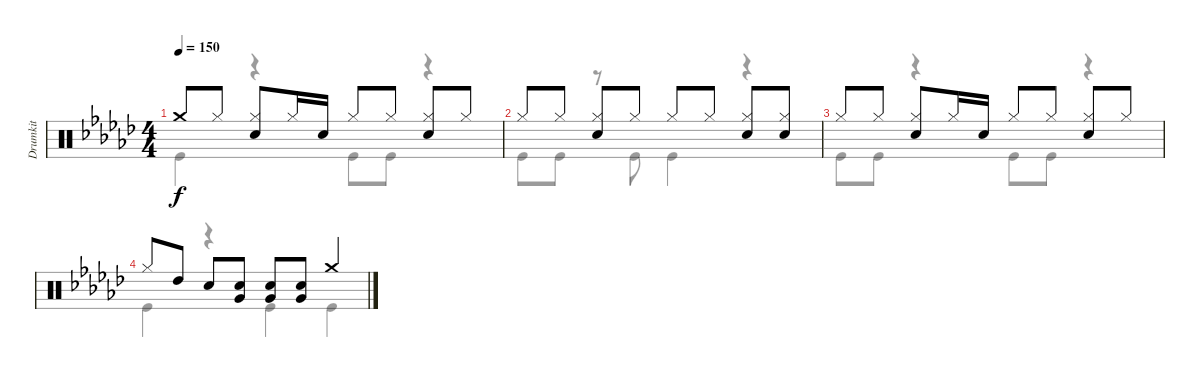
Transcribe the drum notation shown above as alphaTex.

\track ("Drumkit" "Drumkit") {instrument percussion}
\staff {score}
\articulation defaults
\voice
\ts (4 4)
\tempo 150
\clef neutral
\ks ebminor "Crash medium (hit)".8{dy f} "Hi-Hat (closed)".8
("Hi-Hat (closed)" "Snare (hit) 2").8 "Hi-Hat (closed)".16 "Snare (hit) 2".16 "Hi-Hat (closed)".8 "Hi-Hat (closed)".8 ("Hi-Hat (closed)" "Snare (hit) 2").8 "Hi-Hat (closed)".8 |
"Hi-Hat (closed)".8 "Hi-Hat (closed)".8 ("Hi-Hat (closed)" "Snare (hit) 2").8 "Hi-Hat (closed)".8 "Hi-Hat (closed)".8 "Hi-Hat (closed)".8 ("Hi-Hat (closed)" "Snare (hit) 2").8 ("Hi-Hat (closed)" "Snare (hit) 2").8 |
"Hi-Hat (closed)".8 "Hi-Hat (closed)".8 ("Hi-Hat (closed)" "Snare (hit) 2").8 "Hi-Hat (closed)".16 "Snare (hit) 2".16 "Hi-Hat (closed)".8 "Hi-Hat (closed)".8 ("Hi-Hat (closed)" "Snare (hit) 2").8 "Hi-Hat (closed)".8 |
"Hi-Hat (closed)".8 "High Tom (hit)".8 "Snare (hit) 2".8 ("Snare (hit) 2" "Very Low Tom (hit)").8 ("Very Low Tom (hit)" "Snare (hit) 2").8 ("Snare (hit) 2" "Very Low Tom (hit)").8 "Crash medium (hit)".4
\voice
\clef neutral
\ottava regular
\simile none
\ks ebminor "Kick (hit)".4{dy f}
r.4 "Kick (hit)".8 "Kick (hit)".8 r.4 |
"Kick (hit)".8 "Kick (hit)".8 r.8 "Kick (hit)".8 "Kick (hit)".4 r.4 |
"Kick (hit)".8 "Kick (hit)".8 r.4 "Kick (hit)".8 "Kick (hit)".8 r.4 |
"Kick (hit)".4 r.4 "Kick (hit)".4 "Kick (hit)".4
